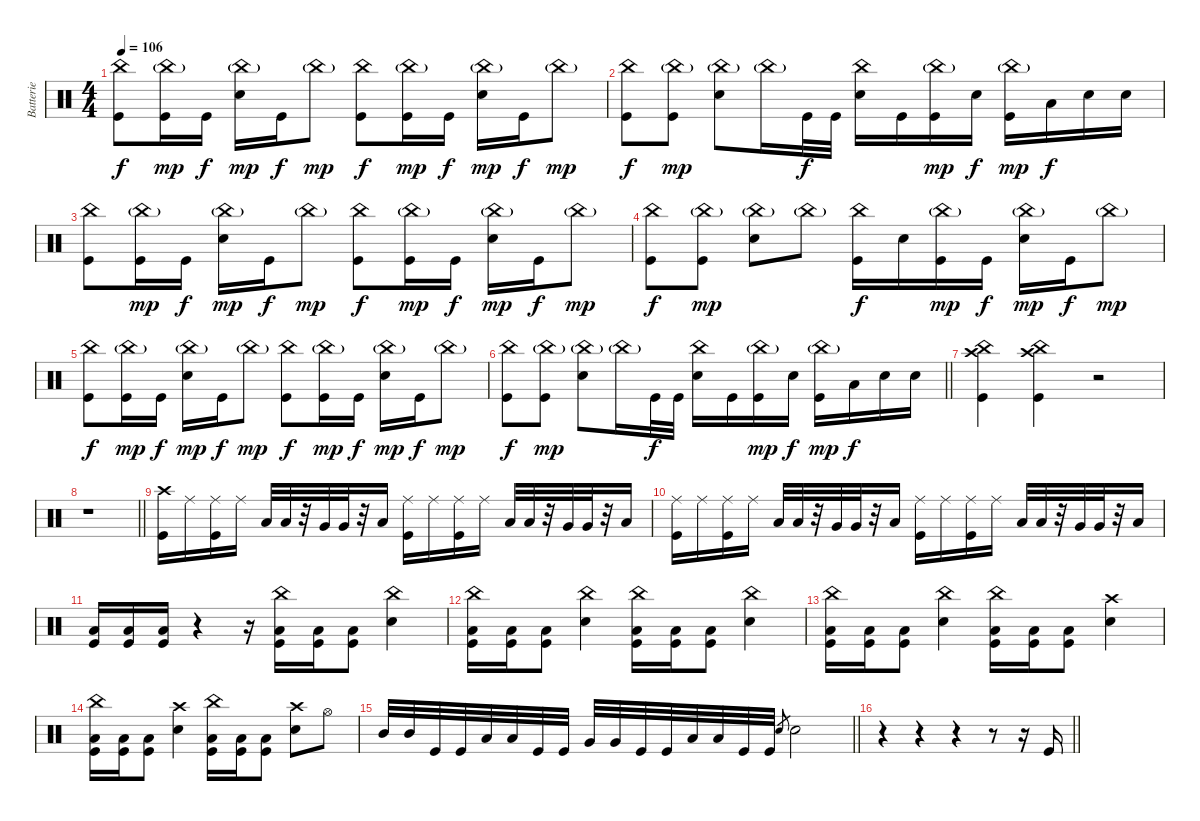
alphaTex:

\track ("Batterie" "Batterie") {instrument percussion}
\staff {score}
\articulation defaults
\ts (4 4)
\tempo 106
\clef neutral
\ks c
("China (hit)" "Kick (hit)").8{dy f} ("China (hit)"{g} "Kick (hit)").16{dy mp} "Kick (hit)".16{dy f} ("China (hit)"{g} "Electric Snare (hit)").16{dy mp} "Kick (hit)".16{dy f} "China (hit)"{g}.8{dy mp} ("China (hit)" "Kick (hit)").8{dy f} ("China (hit)"{g} "Kick (hit)").16{dy mp} "Kick (hit)".16{dy f} ("China (hit)"{g} "Electric Snare (hit)").16{dy mp} "Kick (hit)".16{dy f} "China (hit)"{g}.8{dy mp} |
("China (hit)" "Kick (hit)").8{dy f} ("China (hit)"{g} "Kick (hit)").8{dy mp} ("China (hit)"{g} "Electric Snare (hit)").8 "China (hit)"{g}.16 "Kick (hit)".32{dy f} "Kick (hit)".32 ("China (hit)" "Electric Snare (hit)").16 "Kick (hit)".16 ("China (hit)"{g} "Kick (hit)").16{dy mp} "Electric Snare (hit)".16{dy f} ("China (hit)"{g} "Kick (hit)").16{dy mp} "Low Tom (hit)".16{dy f} "Electric Snare (hit)".16 "Electric Snare (hit)".16 |
("China (hit)" "Kick (hit)").8 ("China (hit)"{g} "Kick (hit)").16{dy mp} "Kick (hit)".16{dy f} ("China (hit)"{g} "Electric Snare (hit)").16{dy mp} "Kick (hit)".16{dy f} "China (hit)"{g}.8{dy mp} ("China (hit)" "Kick (hit)").8{dy f} ("China (hit)"{g} "Kick (hit)").16{dy mp} "Kick (hit)".16{dy f} ("China (hit)"{g} "Electric Snare (hit)").16{dy mp} "Kick (hit)".16{dy f} "China (hit)"{g}.8{dy mp} |
("China (hit)" "Kick (hit)").8{dy f} ("China (hit)"{g} "Kick (hit)").8{dy mp} ("China (hit)"{g} "Electric Snare (hit)").8 "China (hit)"{g}.8 ("China (hit)" "Kick (hit)").16{dy f} "Electric Snare (hit)".16 ("China (hit)"{g} "Kick (hit)").16{dy mp} "Kick (hit)".16{dy f} ("China (hit)"{g} "Electric Snare (hit)").16{dy mp} "Kick (hit)".16{dy f} "China (hit)"{g}.8{dy mp} |
("China (hit)" "Kick (hit)").8{dy f} ("China (hit)"{g} "Kick (hit)").16{dy mp} "Kick (hit)".16{dy f} ("China (hit)"{g} "Electric Snare (hit)").16{dy mp} "Kick (hit)".16{dy f} "China (hit)"{g}.8{dy mp} ("China (hit)" "Kick (hit)").8{dy f} ("China (hit)"{g} "Kick (hit)").16{dy mp} "Kick (hit)".16{dy f} ("China (hit)"{g} "Electric Snare (hit)").16{dy mp} "Kick (hit)".16{dy f} "China (hit)"{g}.8{dy mp} |
\barLineRight lightlight
("China (hit)" "Kick (hit)").8{dy f} ("China (hit)"{g} "Kick (hit)").8{dy mp} ("China (hit)"{g} "Electric Snare (hit)").8 "China (hit)"{g}.16 "Kick (hit)".32{dy f} "Kick (hit)".32 ("China (hit)" "Electric Snare (hit)").16 "Kick (hit)".16 ("China (hit)"{g} "Kick (hit)").16{dy mp} "Electric Snare (hit)".16{dy f} ("China (hit)"{g} "Kick (hit)").16{dy mp} "Low Tom (hit)".16{dy f} "Electric Snare (hit)".16 "Electric Snare (hit)".16 |
("China (hit)" "Crash high (hit)" "Kick (hit)").4 ("China (hit)" "Crash high (hit)" "Kick (hit)").4 r.2 |
\barLineRight lightlight
r.1 |
("Crash high (hit)" "Kick (hit)").16 "Ride (middle)".16 ("Ride (middle)" "Kick (hit)").16 "Ride (middle)".16 "Low Tom (hit)".32 "Low Tom (hit)".32 r.32 "Very Low Tom (hit)".32 "Very Low Tom (hit)".32 r.32 "Low Floor Tom (hit)".16 ("Ride (middle)" "Kick (hit)").16 "Ride (middle)".16 ("Ride (middle)" "Kick (hit)").16 "Ride (middle)".16 "Low Tom (hit)".32 "Low Tom (hit)".32 r.32 "Very Low Tom (hit)".32 "Very Low Tom (hit)".32 r.32 "Low Floor Tom (hit)".16 |
("Ride (middle)" "Kick (hit)").16 "Ride (middle)".16 ("Ride (middle)" "Kick (hit)").16 "Ride (middle)".16 "Low Tom (hit)".32 "Low Tom (hit)".32 r.32 "Very Low Tom (hit)".32 "Very Low Tom (hit)".32 r.32 "Low Floor Tom (hit)".16 ("Ride (middle)" "Kick (hit)").16 "Ride (middle)".16 ("Ride (middle)" "Kick (hit)").16 "Ride (middle)".16 "Low Tom (hit)".32 "Low Tom (hit)".32 r.32 "Very Low Tom (hit)".32 "Very Low Tom (hit)".32 r.32 "Low Floor Tom (hit)".16 |
("Low Floor Tom (hit)" "Kick (hit)").16 ("Low Floor Tom (hit)" "Kick (hit)").16 ("Low Floor Tom (hit)" "Kick (hit)").16 r.4 r.16 ("China (hit)" "Low Floor Tom (hit)" "Kick (hit)").16 ("Low Floor Tom (hit)" "Kick (hit)").16 ("Low Floor Tom (hit)" "Kick (hit)").8 ("China (hit)" "Electric Snare (hit)").4 |
("China (hit)" "Low Floor Tom (hit)" "Kick (hit)").16 ("Low Floor Tom (hit)" "Kick (hit)").16 ("Low Floor Tom (hit)" "Kick (hit)").8 ("China (hit)" "Electric Snare (hit)").4 ("China (hit)" "Low Floor Tom (hit)" "Kick (hit)").16 ("Low Floor Tom (hit)" "Kick (hit)").16 ("Low Floor Tom (hit)" "Kick (hit)").8 ("China (hit)" "Electric Snare (hit)").4 |
("China (hit)" "Low Floor Tom (hit)" "Kick (hit)").16 ("Low Floor Tom (hit)" "Kick (hit)").16 ("Low Floor Tom (hit)" "Kick (hit)").8 ("China (hit)" "Electric Snare (hit)").4 ("China (hit)" "Low Floor Tom (hit)" "Kick (hit)").16 ("Low Floor Tom (hit)" "Kick (hit)").16 ("Low Floor Tom (hit)" "Kick (hit)").8 ("Crash high (hit)" "Electric Snare (hit)").4 |
("China (hit)" "Low Floor Tom (hit)" "Kick (hit)").16 ("Low Floor Tom (hit)" "Kick (hit)").16 ("Low Floor Tom (hit)" "Kick (hit)").8 ("Crash high (hit)" "Electric Snare (hit)").4 ("China (hit)" "Low Floor Tom (hit)" "Kick (hit)").16 ("Low Floor Tom (hit)" "Kick (hit)").16 ("Low Floor Tom (hit)" "Kick (hit)").8 ("Crash high (hit)" "Electric Snare (hit)").8 "Hi-Hat (open)".8 |
\barLineRight lightlight "Mid Tom (hit)".32 "Mid Tom (hit)".32 "Kick (hit)".32 "Kick (hit)".32 "Low Tom (hit)".32 "Low Tom (hit)".32 "Kick (hit)".32 "Kick (hit)".32 "Very Low Tom (hit)".32 "Very Low Tom (hit)".32 "Kick (hit)".32 "Kick (hit)".32 "Low Floor Tom (hit)".32 "Low Floor Tom (hit)".32 "Kick (hit)".32 "Kick (hit)".32 "Electric Snare (hit)".8{gr} "Electric Snare (hit)".2
|
\barLineRight lightlight
r.4 r.4 r.4 r.8 r.16 "Kick (hit)".16
